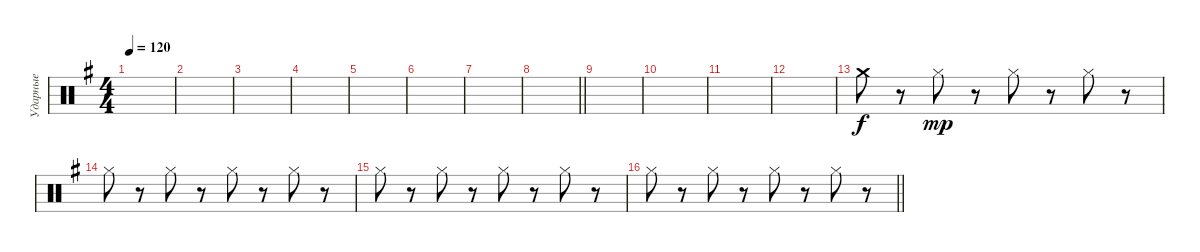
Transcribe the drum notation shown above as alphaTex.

\track ("Ударные" "Ударные") {instrument percussion}
\staff {score}
\articulation defaults
\ts (4 4)
\section ("" " ")
\tempo 120
\clef neutral
\ks eminor
|
|
|
|
|
|
|
\barLineRight lightlight
|
|
|
|
|
"Crash medium (hit)".8 r.8 "Hi-Hat (closed)".8{dy mp} r.8 "Hi-Hat (closed)".8 r.8 "Hi-Hat (closed)".8 r.8 |
"Hi-Hat (closed)".8 r.8 "Hi-Hat (closed)".8 r.8 "Hi-Hat (closed)".8 r.8 "Hi-Hat (closed)".8 r.8 |
"Hi-Hat (closed)".8 r.8 "Hi-Hat (closed)".8 r.8 "Hi-Hat (closed)".8 r.8 "Hi-Hat (closed)".8 r.8 |
\barLineRight lightlight "Hi-Hat (closed)".8
r.8 "Hi-Hat (closed)".8 r.8 "Hi-Hat (closed)".8 r.8 "Hi-Hat (closed)".8 r.8
